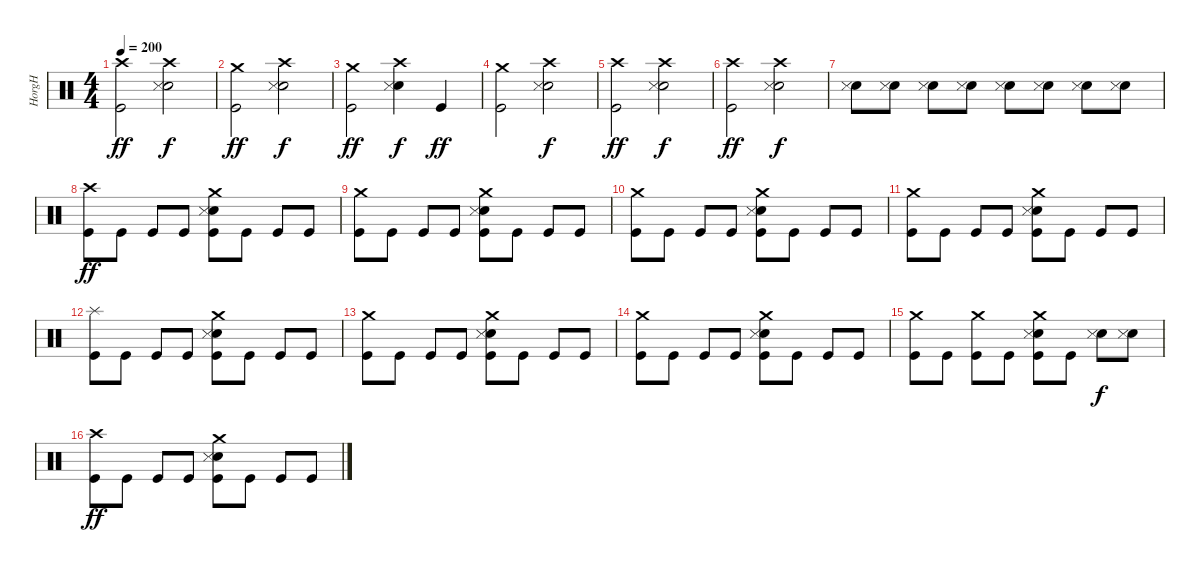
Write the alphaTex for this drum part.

\track ("HorgH" "HorgH") {instrument percussion}
\staff {score}
\articulation defaults
\ts (4 4)
\tempo 200
\clef neutral
\ks c
("Crash high (hit)" "Kick (hit)").2{dy ff} ("Crash high (hit)" "Electric Snare (hit)" "Snare (side stick) 3").2{dy f} |
("Crash medium (hit)" "Kick (hit)").2{dy ff} ("Crash high (hit)" "Electric Snare (hit)" "Snare (side stick) 3").2{dy f} |
("Crash medium (hit)" "Kick (hit)").2{dy ff} ("Crash high (hit)" "Electric Snare (hit)" "Snare (side stick) 3").4{dy f} "Kick (hit)".4{dy ff} |
("Crash medium (hit)" "Kick (hit)").2 ("Crash high (hit)" "Electric Snare (hit)" "Snare (side stick) 3").2{dy f} |
("Crash high (hit)" "Kick (hit)").2{dy ff} ("Crash high (hit)" "Electric Snare (hit)" "Snare (side stick) 3").2{dy f} |
("Crash high (hit)" "Kick (hit)").2{dy ff} ("Crash high (hit)" "Electric Snare (hit)" "Snare (side stick) 3").2{dy f} |
("Electric Snare (hit)" "Snare (side stick) 3").8 ("Electric Snare (hit)" "Snare (side stick) 3").8 ("Electric Snare (hit)" "Snare (side stick) 3").8 ("Electric Snare (hit)" "Snare (side stick) 3").8 ("Electric Snare (hit)" "Snare (side stick) 3").8 ("Electric Snare (hit)" "Snare (side stick) 3").8 ("Electric Snare (hit)" "Snare (side stick) 3").8 ("Electric Snare (hit)" "Snare (side stick) 3").8 |
\section ("" "")
("Crash high (hit)" "Kick (hit)").8{dy ff} "Kick (hit)".8 "Kick (hit)".8 "Kick (hit)".8 ("Crash medium (hit)" "Electric Snare (hit)" "Snare (side stick) 3" "Kick (hit)").8 "Kick (hit)".8 "Kick (hit)".8 "Kick (hit)".8 |
("Crash medium (hit)" "Kick (hit)").8 "Kick (hit)".8 "Kick (hit)".8 "Kick (hit)".8 ("Crash medium (hit)" "Electric Snare (hit)" "Snare (side stick) 3" "Kick (hit)").8 "Kick (hit)".8 "Kick (hit)".8 "Kick (hit)".8 |
("Crash medium (hit)" "Kick (hit)").8 "Kick (hit)".8 "Kick (hit)".8 "Kick (hit)".8 ("Crash medium (hit)" "Electric Snare (hit)" "Snare (side stick) 3" "Kick (hit)").8 "Kick (hit)".8 "Kick (hit)".8 "Kick (hit)".8 |
("Crash medium (hit)" "Kick (hit)").8 "Kick (hit)".8 "Kick (hit)".8 "Kick (hit)".8 ("Crash medium (hit)" "Electric Snare (hit)" "Snare (side stick) 3" "Kick (hit)").8 "Kick (hit)".8 "Kick (hit)".8 "Kick (hit)".8 |
("Splash (hit)" "Kick (hit)").8 "Kick (hit)".8 "Kick (hit)".8 "Kick (hit)".8 ("Crash medium (hit)" "Electric Snare (hit)" "Snare (side stick) 3" "Kick (hit)").8 "Kick (hit)".8 "Kick (hit)".8 "Kick (hit)".8 |
("Crash medium (hit)" "Kick (hit)").8 "Kick (hit)".8 "Kick (hit)".8 "Kick (hit)".8 ("Crash medium (hit)" "Electric Snare (hit)" "Snare (side stick) 3" "Kick (hit)").8 "Kick (hit)".8 "Kick (hit)".8 "Kick (hit)".8 |
("Crash medium (hit)" "Kick (hit)").8 "Kick (hit)".8 "Kick (hit)".8 "Kick (hit)".8 ("Crash medium (hit)" "Electric Snare (hit)" "Snare (side stick) 3" "Kick (hit)").8 "Kick (hit)".8 "Kick (hit)".8 "Kick (hit)".8 |
("Crash medium (hit)" "Kick (hit)").8 "Kick (hit)".8 ("Crash medium (hit)" "Kick (hit)").8 "Kick (hit)".8 ("Crash medium (hit)" "Electric Snare (hit)" "Snare (side stick) 3" "Kick (hit)").8 "Kick (hit)".8 ("Electric Snare (hit)" "Snare (side stick) 3").8{dy f} ("Electric Snare (hit)" "Snare (side stick) 3").8 |
("Crash high (hit)" "Kick (hit)").8{dy ff} "Kick (hit)".8 "Kick (hit)".8 "Kick (hit)".8 ("Crash medium (hit)" "Electric Snare (hit)" "Snare (side stick) 3" "Kick (hit)").8 "Kick (hit)".8 "Kick (hit)".8 "Kick (hit)".8
